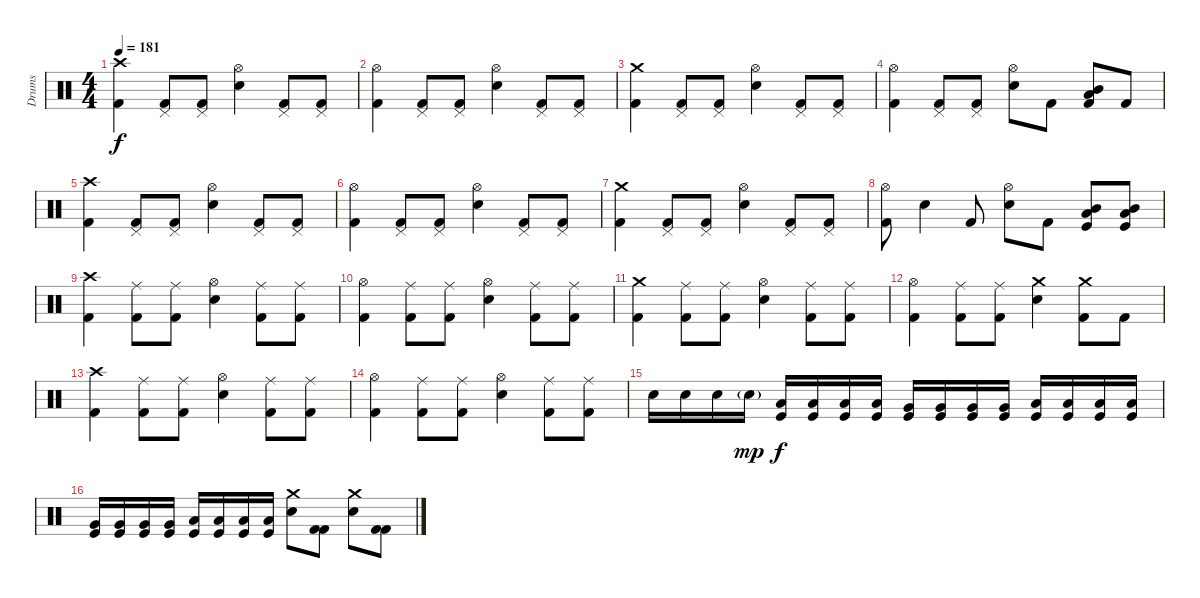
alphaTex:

\track ("Drums" "Drums") {instrument percussion}
\staff {score}
\articulation defaults
\ts (4 4)
\tempo 181
\clef neutral
\ks c
("Crash high (hit)" "Kick (hit) 2").4{dy f} ("Pedal Hi-Hat (hit)" "Kick (hit) 2").8 ("Pedal Hi-Hat (hit)" "Kick (hit) 2").8 ("Hi-Hat (open)" "Electric Snare (hit)").4 ("Pedal Hi-Hat (hit)" "Kick (hit) 2").8 ("Pedal Hi-Hat (hit)" "Kick (hit) 2").8 |
("Hi-Hat (open)" "Kick (hit) 2").4 ("Pedal Hi-Hat (hit)" "Kick (hit) 2").8 ("Pedal Hi-Hat (hit)" "Kick (hit) 2").8 ("Hi-Hat (open)" "Electric Snare (hit)").4 ("Pedal Hi-Hat (hit)" "Kick (hit) 2").8 ("Pedal Hi-Hat (hit)" "Kick (hit) 2").8 |
("Crash medium (hit)" "Kick (hit) 2").4 ("Pedal Hi-Hat (hit)" "Kick (hit) 2").8 ("Pedal Hi-Hat (hit)" "Kick (hit) 2").8 ("Hi-Hat (open)" "Electric Snare (hit)").4 ("Pedal Hi-Hat (hit)" "Kick (hit) 2").8 ("Pedal Hi-Hat (hit)" "Kick (hit) 2").8 |
("Hi-Hat (open)" "Kick (hit) 2").4 ("Pedal Hi-Hat (hit)" "Kick (hit) 2").8 ("Pedal Hi-Hat (hit)" "Kick (hit) 2").8 ("Hi-Hat (open)" "Electric Snare (hit)").8 "Kick (hit) 2".8 ("Mid Tom (hit)" "Low Tom (hit)" "Kick (hit) 2").8 "Kick (hit) 2".8 |
("Crash high (hit)" "Kick (hit) 2").4 ("Pedal Hi-Hat (hit)" "Kick (hit) 2").8 ("Pedal Hi-Hat (hit)" "Kick (hit) 2").8 ("Hi-Hat (open)" "Electric Snare (hit)").4 ("Pedal Hi-Hat (hit)" "Kick (hit) 2").8 ("Pedal Hi-Hat (hit)" "Kick (hit) 2").8 |
("Hi-Hat (open)" "Kick (hit) 2").4 ("Pedal Hi-Hat (hit)" "Kick (hit) 2").8 ("Pedal Hi-Hat (hit)" "Kick (hit) 2").8 ("Hi-Hat (open)" "Electric Snare (hit)").4 ("Pedal Hi-Hat (hit)" "Kick (hit) 2").8 ("Pedal Hi-Hat (hit)" "Kick (hit) 2").8 |
("Crash medium (hit)" "Kick (hit) 2").4 ("Pedal Hi-Hat (hit)" "Kick (hit) 2").8 ("Pedal Hi-Hat (hit)" "Kick (hit) 2").8 ("Hi-Hat (open)" "Electric Snare (hit)").4 ("Pedal Hi-Hat (hit)" "Kick (hit) 2").8 ("Pedal Hi-Hat (hit)" "Kick (hit) 2").8 |
("Hi-Hat (open)" "Kick (hit) 2").8 "Electric Snare (hit)".4 "Kick (hit) 2".8 ("Hi-Hat (open)" "Electric Snare (hit)").8 "Kick (hit) 2".8 ("Mid Tom (hit)" "Low Tom (hit)" "Kick (hit)").8 ("Mid Tom (hit)" "Low Tom (hit)" "Kick (hit)").8 |
("Crash high (hit)" "Kick (hit) 2").4 ("Ride (middle)" "Kick (hit) 2").8 ("Ride (middle)" "Kick (hit) 2").8 ("Hi-Hat (open)" "Electric Snare (hit)").4 ("Ride (middle)" "Kick (hit) 2").8 ("Ride (middle)" "Kick (hit) 2").8 |
("Hi-Hat (open)" "Kick (hit) 2").4 ("Ride (middle)" "Kick (hit) 2").8 ("Ride (middle)" "Kick (hit) 2").8 ("Hi-Hat (open)" "Electric Snare (hit)").4 ("Ride (middle)" "Kick (hit) 2").8 ("Ride (middle)" "Kick (hit) 2").8 |
("Crash medium (hit)" "Kick (hit) 2").4 ("Ride (middle)" "Kick (hit) 2").8 ("Ride (middle)" "Kick (hit) 2").8 ("Hi-Hat (open)" "Electric Snare (hit)").4 ("Ride (middle)" "Kick (hit) 2").8 ("Ride (middle)" "Kick (hit) 2").8 |
("Hi-Hat (open)" "Kick (hit) 2").4 ("Ride (middle)" "Kick (hit) 2").8 ("Ride (middle)" "Kick (hit) 2").8 ("Crash medium (hit)" "Electric Snare (hit)").4 ("Crash medium (hit)" "Kick (hit) 2").8 "Kick (hit) 2".8 |
("Crash high (hit)" "Kick (hit) 2").4 ("Ride (middle)" "Kick (hit) 2").8 ("Ride (middle)" "Kick (hit) 2").8 ("Hi-Hat (open)" "Electric Snare (hit)").4 ("Ride (middle)" "Kick (hit) 2").8 ("Ride (middle)" "Kick (hit) 2").8 |
("Hi-Hat (open)" "Kick (hit) 2").4 ("Ride (middle)" "Kick (hit) 2").8 ("Ride (middle)" "Kick (hit) 2").8 ("Hi-Hat (open)" "Electric Snare (hit)").4 ("Ride (middle)" "Kick (hit) 2").8 ("Ride (middle)" "Kick (hit) 2").8 |
"Electric Snare (hit)".16 "Electric Snare (hit)".16 "Electric Snare (hit)".16 "Electric Snare (hit)"{g}.16{dy mp} ("Low Tom (hit)" "Kick (hit)").16{dy f} ("Low Tom (hit)" "Kick (hit)").16 ("Low Tom (hit)" "Kick (hit)").16 ("Low Tom (hit)" "Kick (hit)").16 ("Very Low Tom (hit)" "Kick (hit)").16 ("Very Low Tom (hit)" "Kick (hit)").16 ("Very Low Tom (hit)" "Kick (hit)").16 ("Very Low Tom (hit)" "Kick (hit)").16 ("Low Floor Tom (hit)" "Kick (hit)").16 ("Low Floor Tom (hit)" "Kick (hit)").16 ("Low Floor Tom (hit)" "Kick (hit)").16 ("Low Floor Tom (hit)" "Kick (hit)").16 |
("Very Low Tom (hit)" "Kick (hit)").16 ("Very Low Tom (hit)" "Kick (hit)").16 ("Very Low Tom (hit)" "Kick (hit)").16 ("Very Low Tom (hit)" "Kick (hit)").16 ("Low Floor Tom (hit)" "Kick (hit)").16 ("Low Floor Tom (hit)" "Kick (hit)").16 ("Low Floor Tom (hit)" "Kick (hit)").16 ("Low Floor Tom (hit)" "Kick (hit)").16 ("Crash medium (hit)" "Electric Snare (hit)").8 ("Kick (hit) 2" "Kick (hit) 2").8 ("Crash medium (hit)" "Electric Snare (hit)").8 ("Kick (hit) 2" "Kick (hit) 2").8
